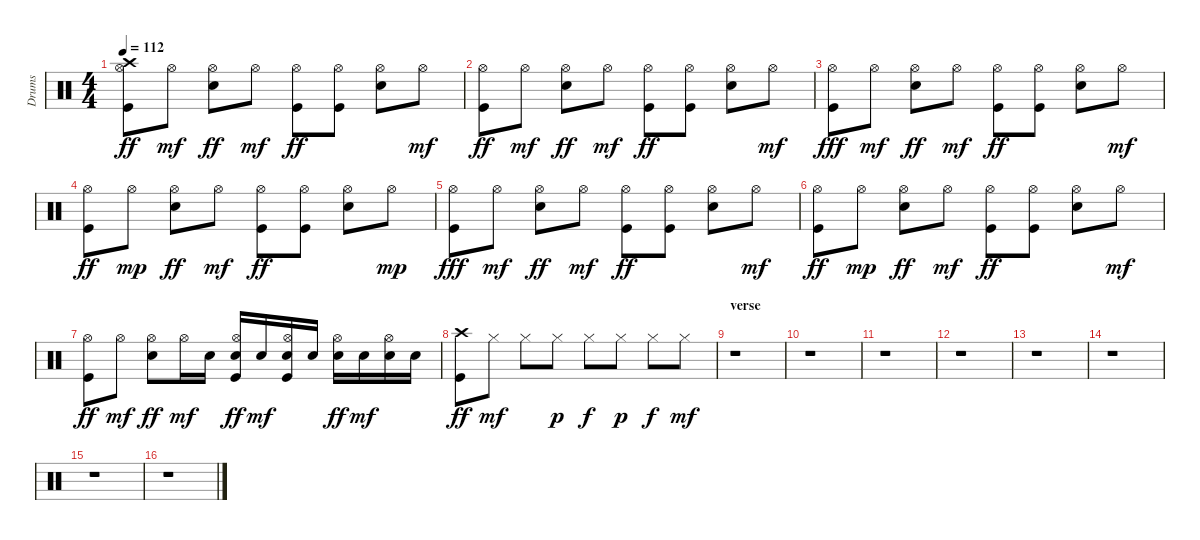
\track ("Drums" "Drums") {instrument percussion}
\staff {score}
\articulation defaults
\ts (4 4)
\tempo 112
\clef neutral
\ks c
("Kick (hit)" "Hi-Hat (open)" "Crash high (hit)").8{dy ff} "Hi-Hat (open)".8{dy mf} ("Electric Snare (hit)" "Hi-Hat (open)").8{dy ff} "Hi-Hat (open)".8{dy mf} ("Kick (hit)" "Hi-Hat (open)").8{dy ff} ("Kick (hit)" "Hi-Hat (open)").8 ("Electric Snare (hit)" "Hi-Hat (open)").8 "Hi-Hat (open)".8{dy mf} |
("Kick (hit)" "Hi-Hat (open)").8{dy ff} "Hi-Hat (open)".8{dy mf} ("Electric Snare (hit)" "Hi-Hat (open)").8{dy ff} "Hi-Hat (open)".8{dy mf} ("Kick (hit)" "Hi-Hat (open)").8{dy ff} ("Kick (hit)" "Hi-Hat (open)").8 ("Electric Snare (hit)" "Hi-Hat (open)").8 "Hi-Hat (open)".8{dy mf} |
("Kick (hit)" "Hi-Hat (open)").8{dy fff} "Hi-Hat (open)".8{dy mf} ("Electric Snare (hit)" "Hi-Hat (open)").8{dy ff} "Hi-Hat (open)".8{dy mf} ("Kick (hit)" "Hi-Hat (open)").8{dy ff} ("Kick (hit)" "Hi-Hat (open)").8 ("Electric Snare (hit)" "Hi-Hat (open)").8 "Hi-Hat (open)".8{dy mf} |
("Kick (hit)" "Hi-Hat (open)").8{dy ff} "Hi-Hat (open)".8{dy mp} ("Electric Snare (hit)" "Hi-Hat (open)").8{dy ff} "Hi-Hat (open)".8{dy mf} ("Kick (hit)" "Hi-Hat (open)").8{dy ff} ("Kick (hit)" "Hi-Hat (open)").8 ("Electric Snare (hit)" "Hi-Hat (open)").8 "Hi-Hat (open)".8{dy mp} |
("Kick (hit)" "Hi-Hat (open)").8{dy fff} "Hi-Hat (open)".8{dy mf} ("Electric Snare (hit)" "Hi-Hat (open)").8{dy ff} "Hi-Hat (open)".8{dy mf} ("Kick (hit)" "Hi-Hat (open)").8{dy ff} ("Kick (hit)" "Hi-Hat (open)").8 ("Electric Snare (hit)" "Hi-Hat (open)").8 "Hi-Hat (open)".8{dy mf} |
("Kick (hit)" "Hi-Hat (open)").8{dy ff} "Hi-Hat (open)".8{dy mp} ("Electric Snare (hit)" "Hi-Hat (open)").8{dy ff} "Hi-Hat (open)".8{dy mf} ("Kick (hit)" "Hi-Hat (open)").8{dy ff} ("Kick (hit)" "Hi-Hat (open)").8 ("Electric Snare (hit)" "Hi-Hat (open)").8 "Hi-Hat (open)".8{dy mf} |
("Kick (hit)" "Hi-Hat (open)").8{dy ff} "Hi-Hat (open)".8{dy mf} ("Electric Snare (hit)" "Hi-Hat (open)").8{dy ff} "Hi-Hat (open)".16{dy mf} "Electric Snare (hit)".16 ("Kick (hit)" "Electric Snare (hit)" "Hi-Hat (open)").16{dy ff} "Electric Snare (hit)".16{dy mf} ("Kick (hit)" "Electric Snare (hit)" "Hi-Hat (open)").16 "Electric Snare (hit)".16 ("Electric Snare (hit)" "Hi-Hat (open)").16{dy ff} "Electric Snare (hit)".16{dy mf} ("Electric Snare (hit)" "Hi-Hat (open)").16 "Electric Snare (hit)".16 |
("Kick (hit)" "Crash high (hit)").8{dy ff} "Hi-Hat (closed)".8{dy mf} "Hi-Hat (closed)".8 "Hi-Hat (closed)".8{dy p} "Hi-Hat (closed)".8{dy f} "Hi-Hat (closed)".8{dy p} "Hi-Hat (closed)".8{dy f} "Hi-Hat (closed)".8{dy mf} |
\section ("" "verse")
r.1 |
r.1 |
r.1 |
r.1 |
r.1 |
r.1 |
r.1 |
r.1
